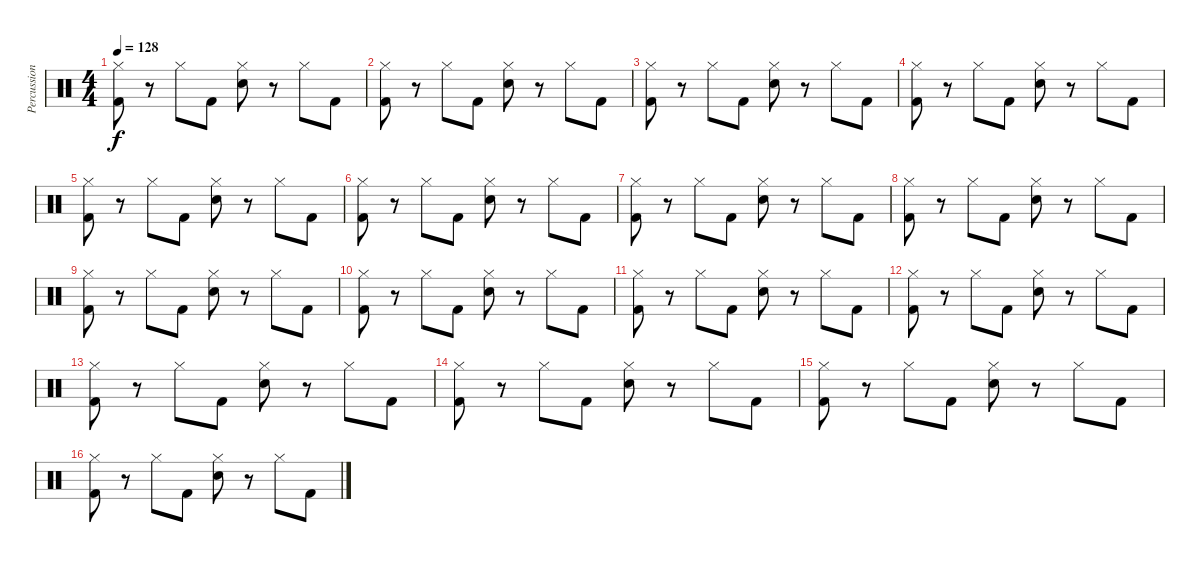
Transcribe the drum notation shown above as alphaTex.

\track ("Percussion" "Percussion") {instrument percussion}
\staff {score}
\articulation defaults
\ts (4 4)
\tempo 128
\clef neutral
\ks c
("Hi-Hat (closed)" "Kick (hit) 2").8{dy f} r.8 "Hi-Hat (closed)".8 "Kick (hit) 2".8 ("Hi-Hat (closed)" "Snare (hit) 2").8 r.8 "Hi-Hat (closed)".8 "Kick (hit) 2".8 |
("Hi-Hat (closed)" "Kick (hit) 2").8 r.8 "Hi-Hat (closed)".8 "Kick (hit) 2".8 ("Hi-Hat (closed)" "Snare (hit) 2").8 r.8 "Hi-Hat (closed)".8 "Kick (hit) 2".8 |
("Hi-Hat (closed)" "Kick (hit) 2").8 r.8 "Hi-Hat (closed)".8 "Kick (hit) 2".8 ("Hi-Hat (closed)" "Snare (hit) 2").8 r.8 "Hi-Hat (closed)".8 "Kick (hit) 2".8 |
("Hi-Hat (closed)" "Kick (hit) 2").8 r.8 "Hi-Hat (closed)".8 "Kick (hit) 2".8 ("Hi-Hat (closed)" "Snare (hit) 2").8 r.8 "Hi-Hat (closed)".8 "Kick (hit) 2".8 |
("Hi-Hat (closed)" "Kick (hit) 2").8 r.8 "Hi-Hat (closed)".8 "Kick (hit) 2".8 ("Hi-Hat (closed)" "Snare (hit) 2").8 r.8 "Hi-Hat (closed)".8 "Kick (hit) 2".8 |
("Hi-Hat (closed)" "Kick (hit) 2").8 r.8 "Hi-Hat (closed)".8 "Kick (hit) 2".8 ("Hi-Hat (closed)" "Snare (hit) 2").8 r.8 "Hi-Hat (closed)".8 "Kick (hit) 2".8 |
("Hi-Hat (closed)" "Kick (hit) 2").8 r.8 "Hi-Hat (closed)".8 "Kick (hit) 2".8 ("Hi-Hat (closed)" "Snare (hit) 2").8 r.8 "Hi-Hat (closed)".8 "Kick (hit) 2".8 |
("Hi-Hat (closed)" "Kick (hit) 2").8 r.8 "Hi-Hat (closed)".8 "Kick (hit) 2".8 ("Hi-Hat (closed)" "Snare (hit) 2").8 r.8 "Hi-Hat (closed)".8 "Kick (hit) 2".8 |
("Hi-Hat (closed)" "Kick (hit) 2").8 r.8 "Hi-Hat (closed)".8 "Kick (hit) 2".8 ("Hi-Hat (closed)" "Snare (hit) 2").8 r.8 "Hi-Hat (closed)".8 "Kick (hit) 2".8 |
("Hi-Hat (closed)" "Kick (hit) 2").8 r.8 "Hi-Hat (closed)".8 "Kick (hit) 2".8 ("Hi-Hat (closed)" "Snare (hit) 2").8 r.8 "Hi-Hat (closed)".8 "Kick (hit) 2".8 |
("Hi-Hat (closed)" "Kick (hit) 2").8 r.8 "Hi-Hat (closed)".8 "Kick (hit) 2".8 ("Hi-Hat (closed)" "Snare (hit) 2").8 r.8 "Hi-Hat (closed)".8 "Kick (hit) 2".8 |
("Hi-Hat (closed)" "Kick (hit) 2").8 r.8 "Hi-Hat (closed)".8 "Kick (hit) 2".8 ("Hi-Hat (closed)" "Snare (hit) 2").8 r.8 "Hi-Hat (closed)".8 "Kick (hit) 2".8 |
("Hi-Hat (closed)" "Kick (hit) 2").8 r.8 "Hi-Hat (closed)".8 "Kick (hit) 2".8 ("Hi-Hat (closed)" "Snare (hit) 2").8 r.8 "Hi-Hat (closed)".8 "Kick (hit) 2".8 |
("Hi-Hat (closed)" "Kick (hit) 2").8 r.8 "Hi-Hat (closed)".8 "Kick (hit) 2".8 ("Hi-Hat (closed)" "Snare (hit) 2").8 r.8 "Hi-Hat (closed)".8 "Kick (hit) 2".8 |
("Hi-Hat (closed)" "Kick (hit) 2").8 r.8 "Hi-Hat (closed)".8 "Kick (hit) 2".8 ("Hi-Hat (closed)" "Snare (hit) 2").8 r.8 "Hi-Hat (closed)".8 "Kick (hit) 2".8 |
("Hi-Hat (closed)" "Kick (hit) 2").8 r.8 "Hi-Hat (closed)".8 "Kick (hit) 2".8 ("Hi-Hat (closed)" "Snare (hit) 2").8 r.8 "Hi-Hat (closed)".8 "Kick (hit) 2".8
